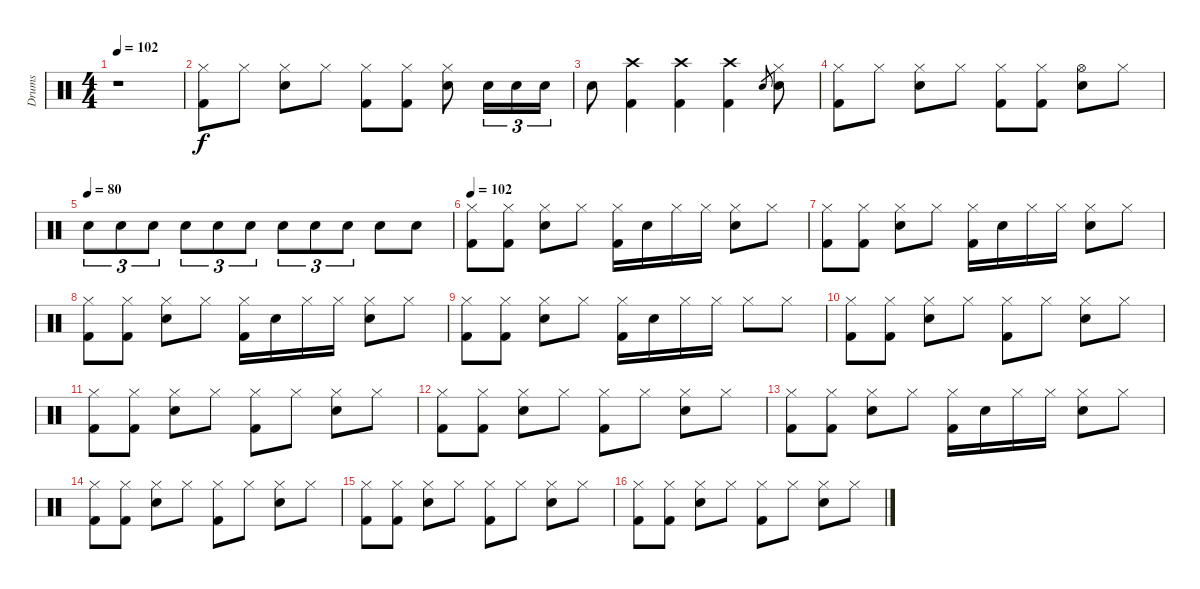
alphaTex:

\track ("Drums" "Drums") {instrument percussion}
\staff {score}
\articulation defaults
\ts (4 4)
\tempo 102
\clef neutral
\ks c
r.1{dy f} |
("Kick (hit) 2" "Hi-Hat (closed)").8 "Hi-Hat (closed)".8 ("Snare (hit) 2" "Hi-Hat (closed)").8 "Hi-Hat (closed)".8 ("Kick (hit) 2" "Hi-Hat (closed)").8 ("Kick (hit) 2" "Hi-Hat (closed)").8 ("Snare (hit) 2" "Hi-Hat (closed)").8 "Snare (hit) 2".16{tu (3 2)} "Snare (hit) 2".16{tu (3 2)} "Snare (hit) 2".16{tu (3 2)} |
"Snare (hit) 2".8 ("Kick (hit) 2" "Crash high (hit)").4 ("Kick (hit) 2" "Crash high (hit)").4 ("Kick (hit) 2" "Crash high (hit)").4 "Snare (hit) 2".8{gr} ("Snare (hit) 2" "Hi-Hat (closed)").8 |
("Kick (hit) 2" "Hi-Hat (closed)").8 "Hi-Hat (closed)".8 ("Snare (hit) 2" "Hi-Hat (closed)").8 "Hi-Hat (closed)".8 ("Kick (hit) 2" "Hi-Hat (closed)").8 ("Kick (hit) 2" "Hi-Hat (closed)").8 ("Snare (hit) 2" "Hi-Hat (open)").8 "Hi-Hat (closed)".8 |
\tempo (80)
"Snare (hit) 2".8{tu (3 2)} "Snare (hit) 2".8{tu (3 2)} "Snare (hit) 2".8{tu (3 2)} "Snare (hit) 2".8{tu (3 2)} "Snare (hit) 2".8{tu (3 2)} "Snare (hit) 2".8{tu (3 2)} "Snare (hit) 2".8{tu (3 2)} "Snare (hit) 2".8{tu (3 2)} "Snare (hit) 2".8{tu (3 2)} "Snare (hit) 2".8 "Snare (hit) 2".8 |
\tempo 102
("Kick (hit) 2" "Hi-Hat (closed)").8 ("Kick (hit) 2" "Hi-Hat (closed)").8 ("Snare (hit) 2" "Hi-Hat (closed)").8 "Hi-Hat (closed)".8 ("Kick (hit) 2" "Hi-Hat (closed)").16 "Snare (hit) 2".16 "Hi-Hat (closed)".16 "Hi-Hat (closed)".16 ("Snare (hit) 2" "Hi-Hat (closed)").8 "Hi-Hat (closed)".8 |
("Kick (hit) 2" "Hi-Hat (closed)").8 ("Kick (hit) 2" "Hi-Hat (closed)").8 ("Snare (hit) 2" "Hi-Hat (closed)").8 "Hi-Hat (closed)".8 ("Kick (hit) 2" "Hi-Hat (closed)").16 "Snare (hit) 2".16 "Hi-Hat (closed)".16 "Hi-Hat (closed)".16 ("Snare (hit) 2" "Hi-Hat (closed)").8 "Hi-Hat (closed)".8 |
("Kick (hit) 2" "Hi-Hat (closed)").8 ("Kick (hit) 2" "Hi-Hat (closed)").8 ("Snare (hit) 2" "Hi-Hat (closed)").8 "Hi-Hat (closed)".8 ("Kick (hit) 2" "Hi-Hat (closed)").16 "Snare (hit) 2".16 "Hi-Hat (closed)".16 "Hi-Hat (closed)".16 ("Snare (hit) 2" "Hi-Hat (closed)").8 "Hi-Hat (closed)".8 |
("Kick (hit) 2" "Hi-Hat (closed)").8 ("Kick (hit) 2" "Hi-Hat (closed)").8 ("Snare (hit) 2" "Hi-Hat (closed)").8 "Hi-Hat (closed)".8 ("Kick (hit) 2" "Hi-Hat (closed)").16 "Snare (hit) 2".16 "Hi-Hat (closed)".16 "Hi-Hat (closed)".16 "Hi-Hat (closed)".8 "Hi-Hat (closed)".8 |
("Kick (hit) 2" "Hi-Hat (closed)").8 ("Kick (hit) 2" "Hi-Hat (closed)").8 ("Snare (hit) 2" "Hi-Hat (closed)").8 "Hi-Hat (closed)".8 ("Kick (hit) 2" "Hi-Hat (closed)").8 "Hi-Hat (closed)".8 ("Snare (hit) 2" "Hi-Hat (closed)").8 "Hi-Hat (closed)".8 |
("Kick (hit) 2" "Hi-Hat (closed)").8 ("Kick (hit) 2" "Hi-Hat (closed)").8 ("Snare (hit) 2" "Hi-Hat (closed)").8 "Hi-Hat (closed)".8 ("Kick (hit) 2" "Hi-Hat (closed)").8 "Hi-Hat (closed)".8 ("Snare (hit) 2" "Hi-Hat (closed)").8 "Hi-Hat (closed)".8 |
("Kick (hit) 2" "Hi-Hat (closed)").8 ("Kick (hit) 2" "Hi-Hat (closed)").8 ("Snare (hit) 2" "Hi-Hat (closed)").8 "Hi-Hat (closed)".8 ("Kick (hit) 2" "Hi-Hat (closed)").8 "Hi-Hat (closed)".8 ("Snare (hit) 2" "Hi-Hat (closed)").8 "Hi-Hat (closed)".8 |
("Kick (hit) 2" "Hi-Hat (closed)").8 ("Kick (hit) 2" "Hi-Hat (closed)").8 ("Snare (hit) 2" "Hi-Hat (closed)").8 "Hi-Hat (closed)".8 ("Kick (hit) 2" "Hi-Hat (closed)").16 "Snare (hit) 2".16 "Hi-Hat (closed)".16 "Hi-Hat (closed)".16 ("Snare (hit) 2" "Hi-Hat (closed)").8 "Hi-Hat (closed)".8 |
("Kick (hit) 2" "Hi-Hat (closed)").8 ("Kick (hit) 2" "Hi-Hat (closed)").8 ("Snare (hit) 2" "Hi-Hat (closed)").8 "Hi-Hat (closed)".8 ("Kick (hit) 2" "Hi-Hat (closed)").8 "Hi-Hat (closed)".8 ("Snare (hit) 2" "Hi-Hat (closed)").8 "Hi-Hat (closed)".8 |
("Kick (hit) 2" "Hi-Hat (closed)").8 ("Kick (hit) 2" "Hi-Hat (closed)").8 ("Snare (hit) 2" "Hi-Hat (closed)").8 "Hi-Hat (closed)".8 ("Kick (hit) 2" "Hi-Hat (closed)").8 "Hi-Hat (closed)".8 ("Snare (hit) 2" "Hi-Hat (closed)").8 "Hi-Hat (closed)".8 |
("Kick (hit) 2" "Hi-Hat (closed)").8 ("Kick (hit) 2" "Hi-Hat (closed)").8 ("Snare (hit) 2" "Hi-Hat (closed)").8 "Hi-Hat (closed)".8 ("Kick (hit) 2" "Hi-Hat (closed)").8 "Hi-Hat (closed)".8 ("Snare (hit) 2" "Hi-Hat (closed)").8 "Hi-Hat (closed)".8
